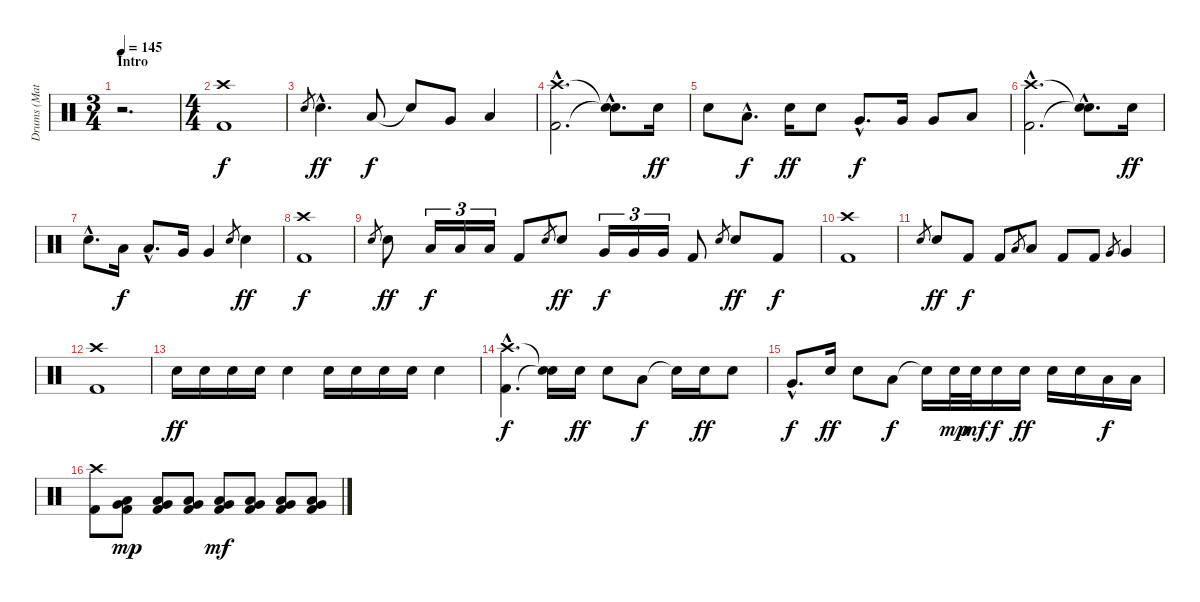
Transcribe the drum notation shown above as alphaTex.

\track ("Drums (Matt)" "Drums (Mat") {instrument percussion}
\staff {score}
\articulation defaults
\ts (3 4)
\section ("" "Intro")
\tempo 145
\clef neutral
\ks c
r.2{d dy f} |
\ts (4 4)
("Crash high (hit)" "Kick (hit) 2").1 |
"Snare (hit) 2".8{gr} "Snare (hit) 2"{hac}.4{d dy ff} "Low Tom (hit)".8{dy f} "Snare (hit)"{t}.8 "Very Low Tom (hit)".8 "Low Floor Tom (hit)".4 |
("Crash high (hit)"{hac} "Kick (hit) 2"{hac}).2{d} ("Snare (hit)"{hac t} "Snare (hit)"{hac t}).8{d} "Snare (hit) 2".16{dy ff} |
"Snare (hit) 2".8 "Low Tom (hit)"{hac}.8{d dy f} "Snare (hit) 2".16{dy ff} "Snare (hit) 2".8 "Very Low Tom (hit)"{hac}.8{d dy f} "Very Low Tom (hit)".16 "Very Low Tom (hit)".8 "Low Floor Tom (hit)".8 |
("Crash high (hit)"{hac} "Kick (hit) 2"{hac}).2{d} ("Snare (hit)"{hac t} "Snare (hit)"{hac t}).8{d} "Snare (hit) 2".16{dy ff} |
"Snare (hit) 2"{hac}.8{d} "Low Tom (hit)".16{dy f} "Low Tom (hit)"{hac}.8{d} "Very Low Tom (hit)".16 "Very Low Tom (hit)".4 "Snare (hit) 2".8{gr} "Snare (hit) 2".4{dy ff} |
("Crash high (hit)" "Kick (hit) 2").1{dy f} |
"Snare (hit) 2".8{gr} "Snare (hit) 2".8{dy ff} "Low Tom (hit)".16{tu (3 2) dy f} "Low Tom (hit)".16{tu (3 2)} "Low Tom (hit)".16{tu (3 2)} "Kick (hit) 2".8 "Snare (hit) 2".8{gr} "Snare (hit) 2".8{dy ff} "Very Low Tom (hit)".16{tu (3 2) dy f} "Very Low Tom (hit)".16{tu (3 2)} "Very Low Tom (hit)".16{tu (3 2)} "Kick (hit) 2".8 "Snare (hit) 2".8{gr} "Snare (hit) 2".8{dy ff} "Kick (hit) 2".8{dy f} |
("Crash high (hit)" "Kick (hit) 2").1 |
"Snare (hit) 2".8{gr} "Snare (hit) 2".8{dy ff} "Kick (hit) 2".8{dy f} "Kick (hit) 2".8 "Low Tom (hit)".8{gr} "Low Tom (hit)".8 "Kick (hit) 2".8 "Kick (hit) 2".8 "Very Low Tom (hit)".8{gr} "Very Low Tom (hit)".4 |
("Crash high (hit)" "Kick (hit) 2").1 |
"Snare (hit) 2".16{dy ff} "Snare (hit) 2".16 "Snare (hit) 2".16 "Snare (hit) 2".16 "Snare (hit) 2".4 "Snare (hit) 2".16 "Snare (hit) 2".16 "Snare (hit) 2".16 "Snare (hit) 2".16 "Snare (hit) 2".4 |
("Crash high (hit)"{hac} "Kick (hit) 2"{hac}).4{d dy f} ("Snare (hit)"{t} "Snare (hit)"{t}).16 "Snare (hit) 2".16{dy ff} "Snare (hit) 2".8 "Low Tom (hit)".8{dy f} "Snare (hit)"{t}.16 "Snare (hit) 2".16{dy ff} "Snare (hit) 2".8 |
"Very Low Tom (hit)"{hac}.8{d dy f} "Snare (hit) 2".16{dy ff} "Snare (hit) 2".8 "Low Floor Tom (hit)".8{dy f} "Snare (hit)"{t}.16 "Snare (hit) 2".32{dy mp} "Snare (hit) 2".32{dy mf} "Snare (hit) 2".16{dy f} "Snare (hit) 2".16{dy ff} "Snare (hit) 2".16 "Snare (hit) 2".16 "Low Floor Tom (hit)".16{dy f} "Low Floor Tom (hit)".16 |
("Crash high (hit)" "Kick (hit) 2").8 ("Low Tom (hit)" "Very Low Tom (hit)" "Kick (hit) 2").8{dy mp} ("Low Tom (hit)" "Very Low Tom (hit)" "Kick (hit) 2").8 ("Low Tom (hit)" "Very Low Tom (hit)" "Kick (hit) 2").8 ("Low Tom (hit)" "Very Low Tom (hit)" "Kick (hit) 2").8{dy mf} ("Low Tom (hit)" "Very Low Tom (hit)" "Kick (hit) 2").8 ("Low Tom (hit)" "Very Low Tom (hit)" "Kick (hit) 2").8 ("Low Tom (hit)" "Very Low Tom (hit)" "Kick (hit) 2").8
